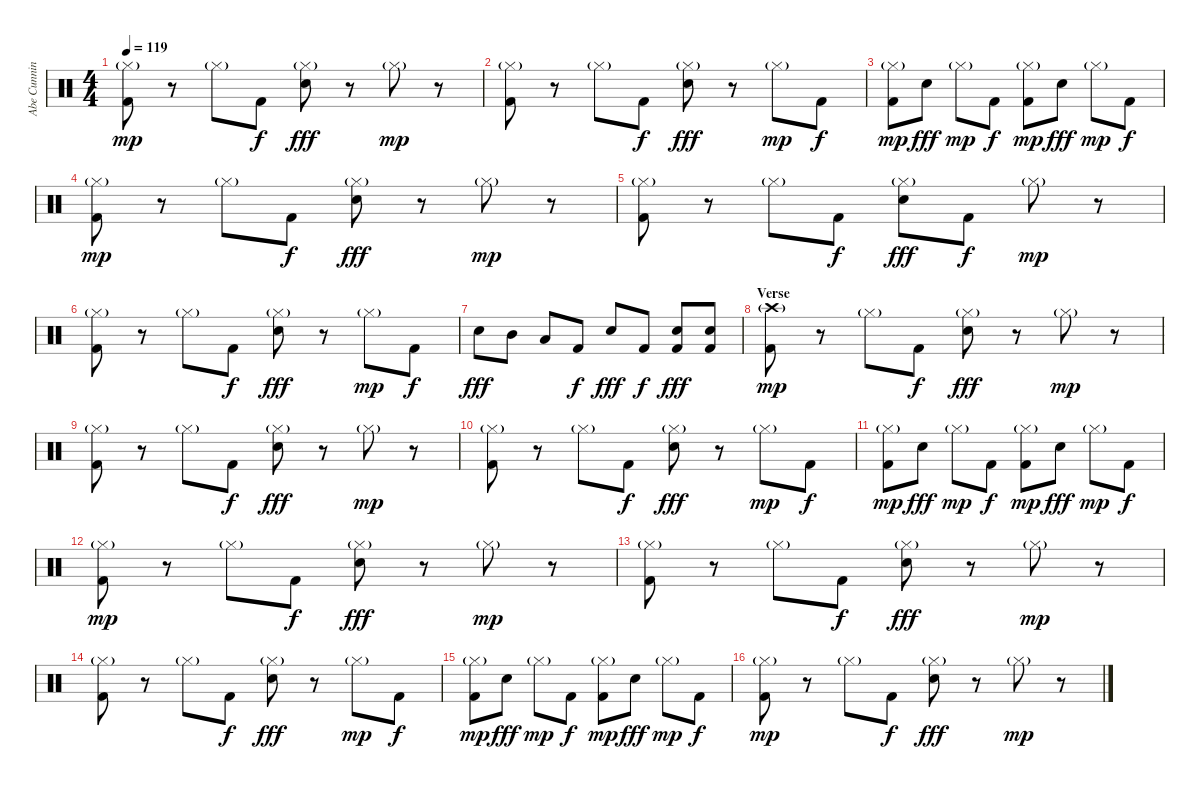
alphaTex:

\track ("Abe Cunningham" "Abe Cunnin") {instrument percussion}
\staff {score}
\articulation defaults
\ts (4 4)
\tempo 119
\clef neutral
\ks c
("Hi-Hat (closed)"{g} "Kick (hit) 2").8{dy mp} r.8 "Hi-Hat (closed)"{g}.8 "Kick (hit) 2".8{dy f} ("Hi-Hat (closed)"{g} "Snare (hit) 2").8{dy fff} r.8 "Hi-Hat (closed)"{g}.8{dy mp} r.8 |
("Hi-Hat (closed)"{g} "Kick (hit) 2").8 r.8 "Hi-Hat (closed)"{g}.8 "Kick (hit) 2".8{dy f} ("Hi-Hat (closed)"{g} "Snare (hit) 2").8{dy fff} r.8 "Hi-Hat (closed)"{g}.8{dy mp} "Kick (hit) 2".8{dy f} |
("Hi-Hat (closed)"{g} "Kick (hit) 2").8{dy mp} "Snare (hit) 2".8{dy fff} "Hi-Hat (closed)"{g}.8{dy mp} "Kick (hit) 2".8{dy f} ("Hi-Hat (closed)"{g} "Kick (hit) 2").8{dy mp} "Snare (hit) 2".8{dy fff} "Hi-Hat (closed)"{g}.8{dy mp} "Kick (hit) 2".8{dy f} |
("Hi-Hat (closed)"{g} "Kick (hit) 2").8{dy mp} r.8 "Hi-Hat (closed)"{g}.8 "Kick (hit) 2".8{dy f} ("Hi-Hat (closed)"{g} "Snare (hit) 2").8{dy fff} r.8 "Hi-Hat (closed)"{g}.8{dy mp} r.8 |
("Hi-Hat (closed)"{g} "Kick (hit) 2").8 r.8 "Hi-Hat (closed)"{g}.8 "Kick (hit) 2".8{dy f} ("Hi-Hat (closed)"{g} "Snare (hit) 2").8{dy fff} "Kick (hit) 2".8{dy f} "Hi-Hat (closed)"{g}.8{dy mp} r.8 |
("Hi-Hat (closed)"{g} "Kick (hit) 2").8 r.8 "Hi-Hat (closed)"{g}.8 "Kick (hit) 2".8{dy f} ("Hi-Hat (closed)"{g} "Snare (hit) 2").8{dy fff} r.8 "Hi-Hat (closed)"{g}.8{dy mp} "Kick (hit) 2".8{dy f} |
"Snare (hit) 2".8{dy fff} "Mid Tom (hit)".8 "Low Tom (hit)".8 "Kick (hit) 2".8{dy f} "Snare (hit) 2".8{dy fff} "Kick (hit) 2".8{dy f} ("Snare (hit) 2" "Kick (hit) 2").8{dy fff} ("Snare (hit) 2" "Kick (hit) 2").8 |
\section ("" "Verse")
("Crash high (hit)"{g} "Kick (hit) 2").8{dy mp} r.8 "Hi-Hat (closed)"{g}.8 "Kick (hit) 2".8{dy f} ("Hi-Hat (closed)"{g} "Snare (hit) 2").8{dy fff} r.8 "Hi-Hat (closed)"{g}.8{dy mp} r.8 |
("Hi-Hat (closed)"{g} "Kick (hit) 2").8 r.8 "Hi-Hat (closed)"{g}.8 "Kick (hit) 2".8{dy f} ("Hi-Hat (closed)"{g} "Snare (hit) 2").8{dy fff} r.8 "Hi-Hat (closed)"{g}.8{dy mp} r.8 |
("Hi-Hat (closed)"{g} "Kick (hit) 2").8 r.8 "Hi-Hat (closed)"{g}.8 "Kick (hit) 2".8{dy f} ("Hi-Hat (closed)"{g} "Snare (hit) 2").8{dy fff} r.8 "Hi-Hat (closed)"{g}.8{dy mp} "Kick (hit) 2".8{dy f} |
("Hi-Hat (closed)"{g} "Kick (hit) 2").8{dy mp} "Snare (hit) 2".8{dy fff} "Hi-Hat (closed)"{g}.8{dy mp} "Kick (hit) 2".8{dy f} ("Hi-Hat (closed)"{g} "Kick (hit) 2").8{dy mp} "Snare (hit) 2".8{dy fff} "Hi-Hat (closed)"{g}.8{dy mp} "Kick (hit) 2".8{dy f} |
("Hi-Hat (closed)"{g} "Kick (hit) 2").8{dy mp} r.8 "Hi-Hat (closed)"{g}.8 "Kick (hit) 2".8{dy f} ("Hi-Hat (closed)"{g} "Snare (hit) 2").8{dy fff} r.8 "Hi-Hat (closed)"{g}.8{dy mp} r.8 |
("Hi-Hat (closed)"{g} "Kick (hit) 2").8 r.8 "Hi-Hat (closed)"{g}.8 "Kick (hit) 2".8{dy f} ("Hi-Hat (closed)"{g} "Snare (hit) 2").8{dy fff} r.8 "Hi-Hat (closed)"{g}.8{dy mp} r.8 |
("Hi-Hat (closed)"{g} "Kick (hit) 2").8 r.8 "Hi-Hat (closed)"{g}.8 "Kick (hit) 2".8{dy f} ("Hi-Hat (closed)"{g} "Snare (hit) 2").8{dy fff} r.8 "Hi-Hat (closed)"{g}.8{dy mp} "Kick (hit) 2".8{dy f} |
("Hi-Hat (closed)"{g} "Kick (hit) 2").8{dy mp} "Snare (hit) 2".8{dy fff} "Hi-Hat (closed)"{g}.8{dy mp} "Kick (hit) 2".8{dy f} ("Hi-Hat (closed)"{g} "Kick (hit) 2").8{dy mp} "Snare (hit) 2".8{dy fff} "Hi-Hat (closed)"{g}.8{dy mp} "Kick (hit) 2".8{dy f} |
("Hi-Hat (closed)"{g} "Kick (hit) 2").8{dy mp} r.8 "Hi-Hat (closed)"{g}.8 "Kick (hit) 2".8{dy f} ("Hi-Hat (closed)"{g} "Snare (hit) 2").8{dy fff} r.8 "Hi-Hat (closed)"{g}.8{dy mp} r.8
